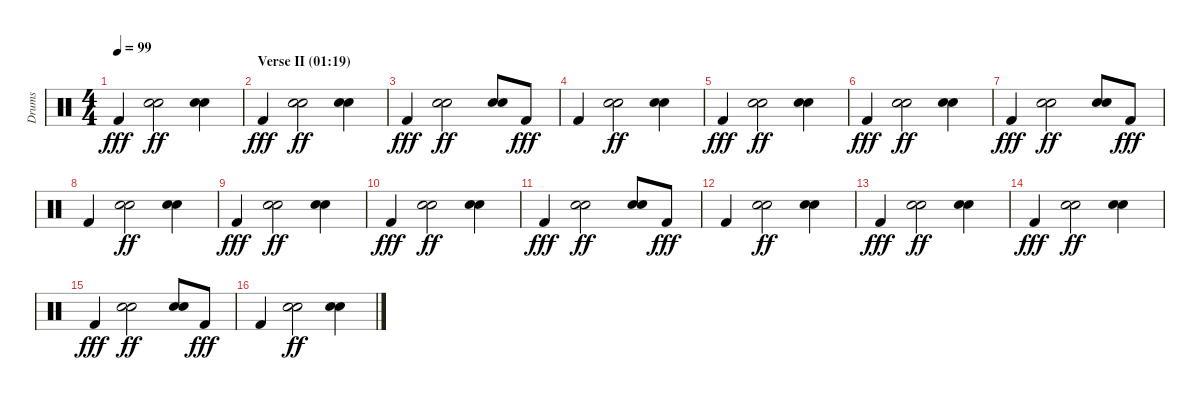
\track ("Drums" "Drums") {instrument percussion}
\staff {score}
\articulation defaults
\ts (4 4)
\tempo 99
\clef neutral
\ks c "Kick (hit) 2".4{dy fff}
("Snare (hit) 2" "Hand Clap (hit)").2{dy ff} ("Snare (hit) 2" "Hand Clap (hit)").4 |
\section ("" "Verse II (01:19)")
"Kick (hit) 2".4{dy fff} ("Snare (hit) 2" "Hand Clap (hit)").2{dy ff} ("Snare (hit) 2" "Hand Clap (hit)").4 |
"Kick (hit) 2".4{dy fff} ("Snare (hit) 2" "Hand Clap (hit)").2{dy ff} ("Snare (hit) 2" "Hand Clap (hit)").8 "Kick (hit) 2".8{dy fff} |
"Kick (hit) 2".4 ("Snare (hit) 2" "Hand Clap (hit)").2{dy ff} ("Snare (hit) 2" "Hand Clap (hit)").4 |
"Kick (hit) 2".4{dy fff} ("Snare (hit) 2" "Hand Clap (hit)").2{dy ff} ("Snare (hit) 2" "Hand Clap (hit)").4 |
"Kick (hit) 2".4{dy fff} ("Snare (hit) 2" "Hand Clap (hit)").2{dy ff} ("Snare (hit) 2" "Hand Clap (hit)").4 |
"Kick (hit) 2".4{dy fff} ("Snare (hit) 2" "Hand Clap (hit)").2{dy ff} ("Snare (hit) 2" "Hand Clap (hit)").8 "Kick (hit) 2".8{dy fff} |
"Kick (hit) 2".4 ("Snare (hit) 2" "Hand Clap (hit)").2{dy ff} ("Snare (hit) 2" "Hand Clap (hit)").4 |
"Kick (hit) 2".4{dy fff} ("Snare (hit) 2" "Hand Clap (hit)").2{dy ff} ("Snare (hit) 2" "Hand Clap (hit)").4 |
"Kick (hit) 2".4{dy fff} ("Snare (hit) 2" "Hand Clap (hit)").2{dy ff} ("Snare (hit) 2" "Hand Clap (hit)").4 |
"Kick (hit) 2".4{dy fff} ("Snare (hit) 2" "Hand Clap (hit)").2{dy ff} ("Snare (hit) 2" "Hand Clap (hit)").8 "Kick (hit) 2".8{dy fff} |
"Kick (hit) 2".4 ("Snare (hit) 2" "Hand Clap (hit)").2{dy ff} ("Snare (hit) 2" "Hand Clap (hit)").4 |
"Kick (hit) 2".4{dy fff} ("Snare (hit) 2" "Hand Clap (hit)").2{dy ff} ("Snare (hit) 2" "Hand Clap (hit)").4 |
"Kick (hit) 2".4{dy fff} ("Snare (hit) 2" "Hand Clap (hit)").2{dy ff} ("Snare (hit) 2" "Hand Clap (hit)").4 |
"Kick (hit) 2".4{dy fff} ("Snare (hit) 2" "Hand Clap (hit)").2{dy ff} ("Snare (hit) 2" "Hand Clap (hit)").8 "Kick (hit) 2".8{dy fff} |
"Kick (hit) 2".4 ("Snare (hit) 2" "Hand Clap (hit)").2{dy ff} ("Snare (hit) 2" "Hand Clap (hit)").4
